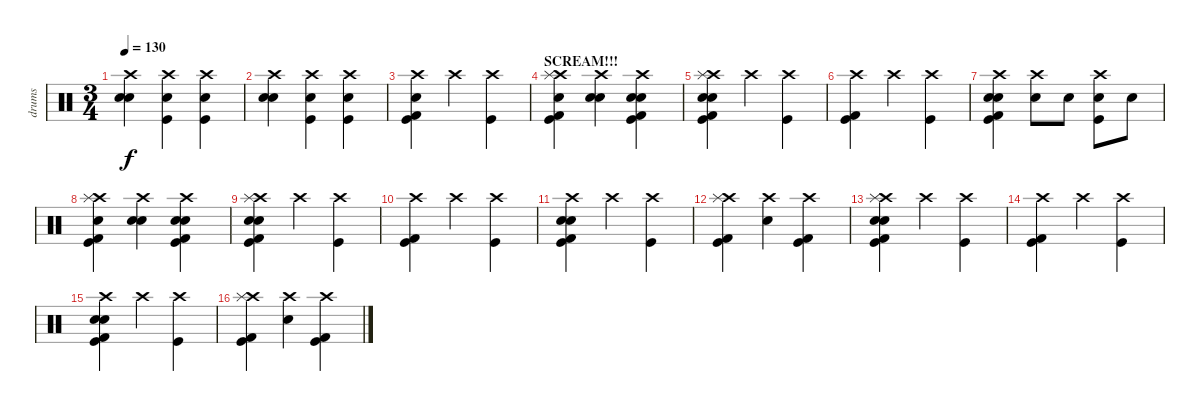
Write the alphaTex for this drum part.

\track ("drums" "drums") {instrument percussion}
\staff {score}
\articulation defaults
\ts (3 4)
\tempo 130
\clef neutral
\ks c
("Crash high (hit)" "Snare (hit) 2" "Electric Snare (hit)").4{dy f} ("Crash high (hit)" "Snare (hit) 2" "Kick (hit)").4 ("Crash high (hit)" "Snare (hit) 2" "Kick (hit)").4 |
("Crash high (hit)" "Snare (hit) 2" "Electric Snare (hit)").4 ("Crash high (hit)" "Snare (hit) 2" "Kick (hit)").4 ("Crash high (hit)" "Snare (hit) 2" "Kick (hit)").4 |
("Crash high (hit)" "Snare (hit) 2" "Kick (hit) 2" "Kick (hit)").4 "Crash high (hit)".4 ("Crash high (hit)" "Kick (hit)").4 |
\section ("" "SCREAM!!!")
("Crash high (hit)" "Splash (hit)" "Snare (hit) 2" "Kick (hit) 2" "Kick (hit)").4{volume 16} ("Crash high (hit)" "Electric Snare (hit)" "Snare (hit) 2").4 ("Crash high (hit)" "Electric Snare (hit)" "Snare (hit) 2" "Kick (hit) 2" "Kick (hit)").4 |
("Crash high (hit)" "Electric Snare (hit)" "Snare (hit) 2" "Splash (hit)" "Kick (hit) 2" "Kick (hit)").4 "Crash high (hit)".4 ("Crash high (hit)" "Kick (hit)").4 |
("Crash high (hit)" "Kick (hit) 2" "Kick (hit)").4 "Crash high (hit)".4 ("Crash high (hit)" "Kick (hit)").4 |
("Crash high (hit)" "Electric Snare (hit)" "Snare (hit) 2" "Kick (hit) 2" "Kick (hit)").4 ("Crash high (hit)" "Snare (hit) 2").8 "Snare (hit) 2".8 ("Crash high (hit)" "Snare (hit) 2" "Kick (hit)").8 "Snare (hit) 2".8 |
("Crash high (hit)" "Splash (hit)" "Snare (hit) 2" "Kick (hit) 2" "Kick (hit)").4 ("Crash high (hit)" "Electric Snare (hit)" "Snare (hit) 2").4 ("Crash high (hit)" "Electric Snare (hit)" "Snare (hit) 2" "Kick (hit) 2" "Kick (hit)").4 |
("Crash high (hit)" "Electric Snare (hit)" "Snare (hit) 2" "Splash (hit)" "Kick (hit) 2" "Kick (hit)").4 "Crash high (hit)".4 ("Crash high (hit)" "Kick (hit)").4 |
("Crash high (hit)" "Kick (hit) 2" "Kick (hit)").4 "Crash high (hit)".4 ("Crash high (hit)" "Kick (hit)").4 |
("Crash high (hit)" "Electric Snare (hit)" "Snare (hit) 2" "Kick (hit) 2" "Kick (hit)").4 "Crash high (hit)".4 ("Crash high (hit)" "Kick (hit)").4 |
("Crash high (hit)" "Splash (hit)" "Kick (hit) 2" "Kick (hit)").4 ("Crash high (hit)" "Snare (hit) 2").4 ("Crash high (hit)" "Kick (hit) 2" "Kick (hit)").4 |
("Crash high (hit)" "Electric Snare (hit)" "Snare (hit) 2" "Splash (hit)" "Kick (hit) 2" "Kick (hit)").4 "Crash high (hit)".4 ("Crash high (hit)" "Kick (hit)").4 |
("Crash high (hit)" "Kick (hit) 2" "Kick (hit)").4 "Crash high (hit)".4 ("Crash high (hit)" "Kick (hit)").4 |
("Crash high (hit)" "Electric Snare (hit)" "Snare (hit) 2" "Kick (hit) 2" "Kick (hit)").4 "Crash high (hit)".4 ("Crash high (hit)" "Kick (hit)").4 |
("Crash high (hit)" "Splash (hit)" "Kick (hit) 2" "Kick (hit)").4 ("Crash high (hit)" "Snare (hit) 2").4 ("Crash high (hit)" "Kick (hit) 2" "Kick (hit)").4
